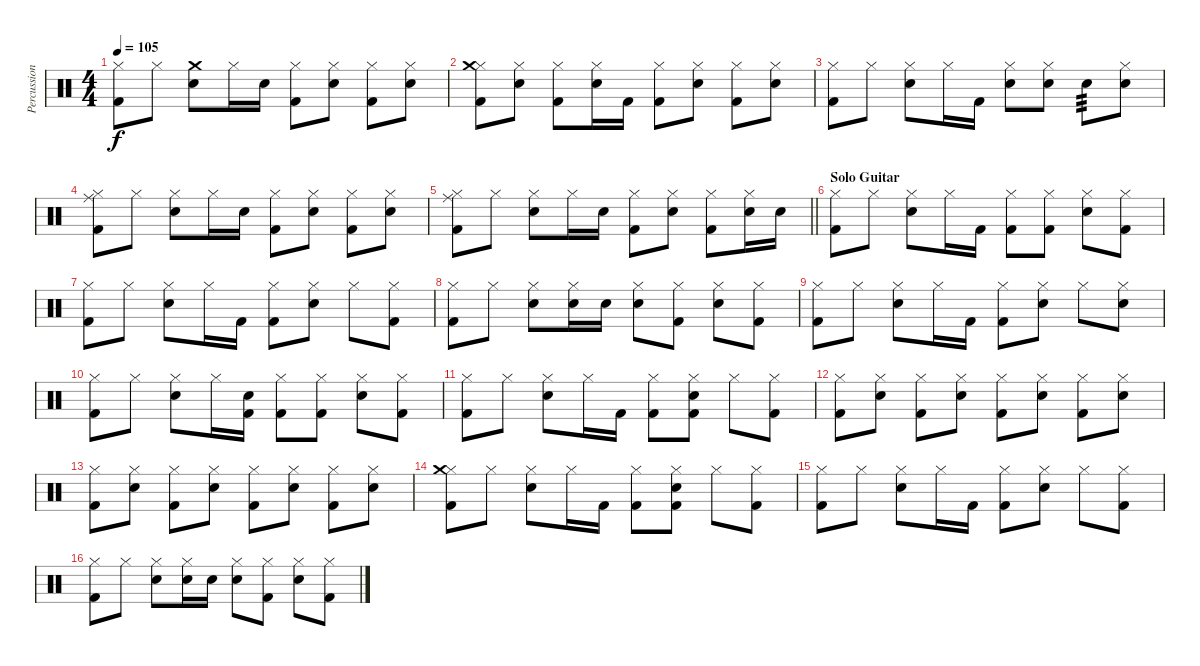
\track ("Percussion" "Percussion") {instrument percussion}
\staff {score}
\articulation defaults
\ts (4 4)
\tempo 105
\clef neutral
\ks c
("Hi-Hat (closed)" "Kick (hit) 2").8{dy f} "Hi-Hat (closed)".8 ("Electric Snare (hit)" "Crash medium (hit)").8 "Hi-Hat (closed)".16 "Electric Snare (hit)".16 ("Hi-Hat (closed)" "Kick (hit) 2").8 ("Hi-Hat (closed)" "Electric Snare (hit)").8 ("Hi-Hat (closed)" "Kick (hit) 2").8 ("Hi-Hat (closed)" "Electric Snare (hit)").8 |
("Hi-Hat (closed)" "Crash medium (hit)" "Kick (hit) 2").8 ("Hi-Hat (closed)" "Electric Snare (hit)").8 ("Hi-Hat (closed)" "Kick (hit) 2").8 ("Electric Snare (hit)" "Hi-Hat (closed)").16 "Kick (hit) 2".16 ("Hi-Hat (closed)" "Kick (hit) 2").8 ("Hi-Hat (closed)" "Electric Snare (hit)").8 ("Hi-Hat (closed)" "Kick (hit) 2").8 ("Hi-Hat (closed)" "Electric Snare (hit)").8 |
("Hi-Hat (closed)" "Kick (hit) 2").8 "Hi-Hat (closed)".8 ("Hi-Hat (closed)" "Electric Snare (hit)").8 "Hi-Hat (closed)".16 "Kick (hit) 2".16 ("Hi-Hat (closed)" "Electric Snare (hit)").8 ("Hi-Hat (closed)" "Electric Snare (hit)").8 "Electric Snare (hit)".8{tp 3} ("Hi-Hat (closed)" "Electric Snare (hit)").8 |
("Hi-Hat (closed)" "Ride (middle)" "Kick (hit) 2").8 "Hi-Hat (closed)".8 ("Hi-Hat (closed)" "Electric Snare (hit)").8 "Hi-Hat (closed)".16 "Electric Snare (hit)".16 ("Hi-Hat (closed)" "Kick (hit) 2").8 ("Hi-Hat (closed)" "Electric Snare (hit)").8 ("Hi-Hat (closed)" "Kick (hit) 2").8 ("Hi-Hat (closed)" "Electric Snare (hit)").8 |
\barLineRight lightlight
("Hi-Hat (closed)" "Ride (middle)" "Kick (hit) 2").8 "Hi-Hat (closed)".8 ("Hi-Hat (closed)" "Electric Snare (hit)").8 "Hi-Hat (closed)".16 "Electric Snare (hit)".16 ("Hi-Hat (closed)" "Kick (hit) 2").8 ("Hi-Hat (closed)" "Electric Snare (hit)").8 ("Hi-Hat (closed)" "Kick (hit) 2").8 ("Hi-Hat (closed)" "Electric Snare (hit)").16 "Electric Snare (hit)".16 |
\section ("" "Solo Guitar")
("Hi-Hat (closed)" "Kick (hit) 2").8 "Hi-Hat (closed)".8 ("Hi-Hat (closed)" "Electric Snare (hit)").8 "Hi-Hat (closed)".16 "Kick (hit) 2".16 ("Hi-Hat (closed)" "Kick (hit) 2").8 ("Hi-Hat (closed)" "Kick (hit) 2").8 ("Hi-Hat (closed)" "Electric Snare (hit)").8 ("Hi-Hat (closed)" "Kick (hit) 2").8 |
("Hi-Hat (closed)" "Kick (hit) 2").8 "Hi-Hat (closed)".8 ("Hi-Hat (closed)" "Electric Snare (hit)").8 "Hi-Hat (closed)".16 "Kick (hit) 2".16 ("Hi-Hat (closed)" "Kick (hit) 2").8 ("Hi-Hat (closed)" "Electric Snare (hit)").8 "Hi-Hat (closed)".8 ("Hi-Hat (closed)" "Kick (hit) 2").8 |
("Hi-Hat (closed)" "Kick (hit) 2").8 "Hi-Hat (closed)".8 ("Hi-Hat (closed)" "Electric Snare (hit)").8 ("Hi-Hat (closed)" "Electric Snare (hit)").16 "Electric Snare (hit)".16 ("Hi-Hat (closed)" "Electric Snare (hit)").8 ("Hi-Hat (closed)" "Kick (hit) 2").8 ("Hi-Hat (closed)" "Electric Snare (hit)").8 ("Hi-Hat (closed)" "Kick (hit) 2").8 |
("Hi-Hat (closed)" "Kick (hit) 2").8 "Hi-Hat (closed)".8 ("Hi-Hat (closed)" "Electric Snare (hit)").8 "Hi-Hat (closed)".16 "Kick (hit) 2".16 ("Hi-Hat (closed)" "Kick (hit) 2").8 ("Hi-Hat (closed)" "Electric Snare (hit)").8 "Hi-Hat (closed)".8 ("Hi-Hat (closed)" "Electric Snare (hit)").8 |
("Hi-Hat (closed)" "Kick (hit) 2").8 "Hi-Hat (closed)".8 ("Hi-Hat (closed)" "Electric Snare (hit)").8 "Hi-Hat (closed)".16 ("Electric Snare (hit)" "Kick (hit) 2").16 ("Hi-Hat (closed)" "Kick (hit) 2").8 ("Hi-Hat (closed)" "Kick (hit) 2").8 ("Hi-Hat (closed)" "Electric Snare (hit)").8 ("Hi-Hat (closed)" "Kick (hit) 2").8 |
("Hi-Hat (closed)" "Kick (hit) 2").8 "Hi-Hat (closed)".8 ("Hi-Hat (closed)" "Electric Snare (hit)").8 "Hi-Hat (closed)".16 "Kick (hit) 2".16 ("Hi-Hat (closed)" "Kick (hit) 2").8 ("Hi-Hat (closed)" "Electric Snare (hit)" "Kick (hit) 2").8 "Hi-Hat (closed)".8 ("Hi-Hat (closed)" "Kick (hit) 2").8 |
("Hi-Hat (closed)" "Kick (hit) 2").8 ("Hi-Hat (closed)" "Electric Snare (hit)").8 ("Hi-Hat (closed)" "Kick (hit) 2").8 ("Hi-Hat (closed)" "Electric Snare (hit)").8 ("Hi-Hat (closed)" "Kick (hit) 2").8 ("Hi-Hat (closed)" "Electric Snare (hit)").8 ("Hi-Hat (closed)" "Kick (hit) 2").8 ("Hi-Hat (closed)" "Electric Snare (hit)").8 |
("Hi-Hat (closed)" "Kick (hit) 2").8 ("Hi-Hat (closed)" "Electric Snare (hit)").8 ("Hi-Hat (closed)" "Kick (hit) 2").8 ("Hi-Hat (closed)" "Electric Snare (hit)").8 ("Hi-Hat (closed)" "Kick (hit) 2").8 ("Hi-Hat (closed)" "Electric Snare (hit)").8 ("Hi-Hat (closed)" "Kick (hit) 2").8 ("Hi-Hat (closed)" "Electric Snare (hit)").8 |
("Hi-Hat (closed)" "Crash medium (hit)" "Kick (hit) 2").8 "Hi-Hat (closed)".8 ("Hi-Hat (closed)" "Electric Snare (hit)").8 "Hi-Hat (closed)".16 "Kick (hit) 2".16 ("Hi-Hat (closed)" "Kick (hit) 2").8 ("Hi-Hat (closed)" "Electric Snare (hit)" "Kick (hit) 2").8 "Hi-Hat (closed)".8 ("Hi-Hat (closed)" "Kick (hit) 2").8 |
("Hi-Hat (closed)" "Kick (hit) 2").8 "Hi-Hat (closed)".8 ("Hi-Hat (closed)" "Electric Snare (hit)").8 "Hi-Hat (closed)".16 "Kick (hit) 2".16 ("Hi-Hat (closed)" "Kick (hit) 2").8 ("Hi-Hat (closed)" "Electric Snare (hit)").8 "Hi-Hat (closed)".8 ("Hi-Hat (closed)" "Kick (hit) 2").8 |
("Hi-Hat (closed)" "Kick (hit) 2").8 "Hi-Hat (closed)".8 ("Hi-Hat (closed)" "Electric Snare (hit)").8 ("Hi-Hat (closed)" "Electric Snare (hit)").16 "Electric Snare (hit)".16 ("Hi-Hat (closed)" "Electric Snare (hit)").8 ("Hi-Hat (closed)" "Kick (hit) 2").8 ("Hi-Hat (closed)" "Electric Snare (hit)").8 ("Hi-Hat (closed)" "Kick (hit) 2").8
